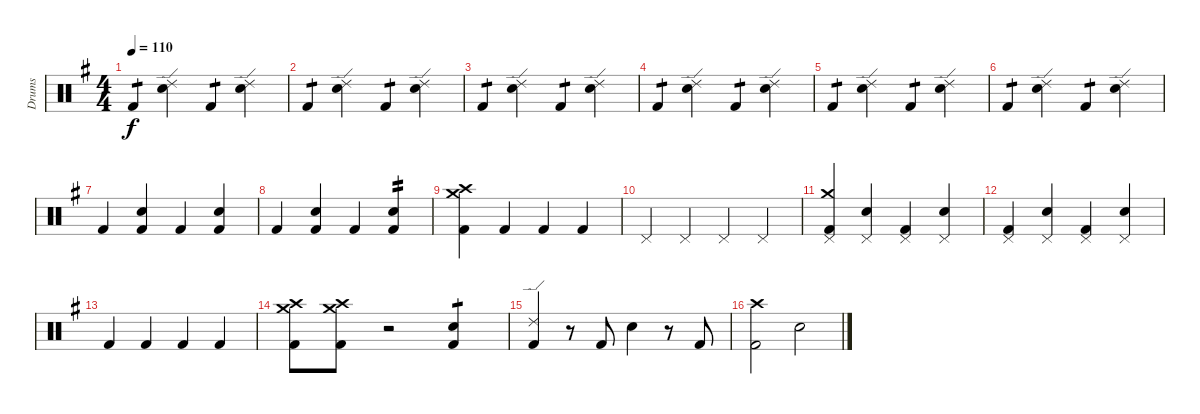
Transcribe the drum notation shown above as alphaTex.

\track ("Drums" "Drums") {instrument percussion}
\staff {score}
\articulation defaults
\ts (4 4)
\tempo 110
\clef neutral
\ks g "Kick (hit) 2".4{tp 1 dy f}
("Ride (edge) 2" "Snare (hit) 2").4 "Kick (hit) 2".4{tp 1} ("Ride (edge) 2" "Snare (hit) 2").4 |
"Kick (hit) 2".4{tp 1} ("Ride (edge) 2" "Snare (hit) 2").4 "Kick (hit) 2".4{tp 1} ("Ride (edge) 2" "Snare (hit) 2").4 |
"Kick (hit) 2".4{tp 1} ("Ride (edge) 2" "Snare (hit) 2").4 "Kick (hit) 2".4{tp 1} ("Ride (edge) 2" "Snare (hit) 2").4 |
"Kick (hit) 2".4{tp 1} ("Ride (edge) 2" "Snare (hit) 2").4 "Kick (hit) 2".4{tp 1} ("Ride (edge) 2" "Snare (hit) 2").4 |
"Kick (hit) 2".4{tp 1} ("Ride (edge) 2" "Snare (hit) 2").4 "Kick (hit) 2".4{tp 1} ("Ride (edge) 2" "Snare (hit) 2").4 |
"Kick (hit) 2".4{tp 1} ("Ride (edge) 2" "Snare (hit) 2").4 "Kick (hit) 2".4{tp 1} ("Ride (edge) 2" "Snare (hit) 2").4 |
"Kick (hit) 2".4 ("Kick (hit) 2" "Snare (hit) 2").4 "Kick (hit) 2".4 ("Kick (hit) 2" "Snare (hit) 2").4 |
"Kick (hit) 2".4 ("Kick (hit) 2" "Snare (hit) 2").4 "Kick (hit) 2".4 ("Kick (hit) 2" "Snare (hit) 2").4{tp 2} |
("Kick (hit) 2" "Crash medium (hit)" "Crash high (hit)").4 "Kick (hit) 2".4 "Kick (hit) 2".4 "Kick (hit) 2".4 |
"Pedal Hi-Hat (hit)".4 "Pedal Hi-Hat (hit)".4 "Pedal Hi-Hat (hit)".4 "Pedal Hi-Hat (hit)".4 |
("Kick (hit) 2" "Pedal Hi-Hat (hit)" "Crash medium (hit)").4 ("Snare (hit) 2" "Pedal Hi-Hat (hit)").4 ("Kick (hit) 2" "Pedal Hi-Hat (hit)").4 ("Snare (hit) 2" "Pedal Hi-Hat (hit)").4 |
("Kick (hit) 2" "Pedal Hi-Hat (hit)").4 ("Snare (hit) 2" "Pedal Hi-Hat (hit)").4 ("Kick (hit) 2" "Pedal Hi-Hat (hit)").4 ("Snare (hit) 2" "Pedal Hi-Hat (hit)").4 |
"Kick (hit) 2".4 "Kick (hit) 2".4 "Kick (hit) 2".4 "Kick (hit) 2".4 |
("Kick (hit) 2" "Crash high (hit)" "Crash medium (hit)").8 ("Kick (hit) 2" "Crash high (hit)" "Crash medium (hit)").8 r.2 ("Kick (hit) 2" "Snare (hit) 2").4{tp 1} |
("Kick (hit) 2" "Ride (edge) 2").4 r.8 "Kick (hit) 2".8 "Snare (hit) 2".4 r.8 "Kick (hit) 2".8 |
("Kick (hit) 2" "Crash high (hit)").2 "Snare (hit) 2".2
